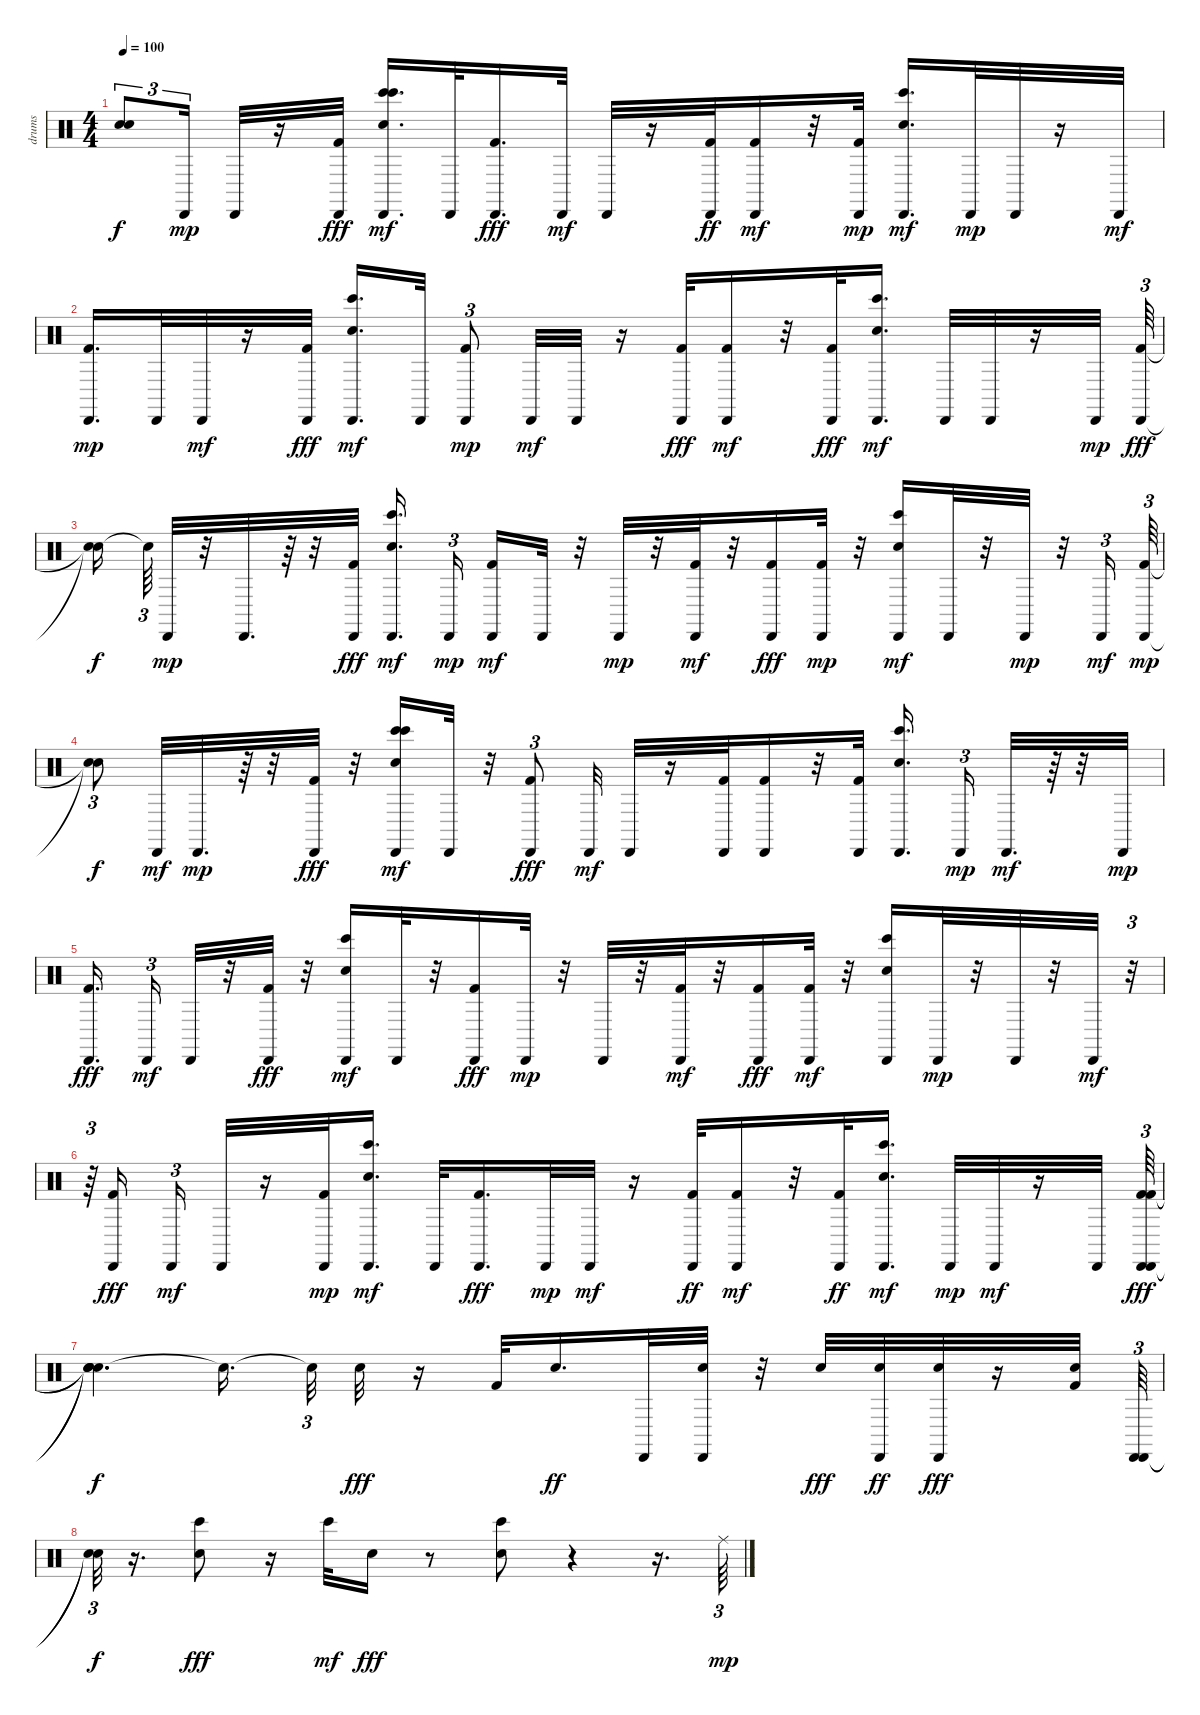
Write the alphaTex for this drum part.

\track ("drums" "drums") {instrument percussion}
\staff {score}
\articulation defaults
\ts (4 4)
\tempo 100
\clef neutral
\ks c
("Snare (hit)"{t} "Snare (hit)"{t}).8{tu (3 2) dy f} "Cabasa (hit)".16{tu (3 2) dy mp} "Cabasa (hit)".32 r.16 ("Cabasa (hit)" "Kick (hit) 2").32{dy fff} ("Electric Snare (hit)" "Cabasa (hit)" "Bongo High (hit)" "Bongo High (hit)").16{d dy mf} "Cabasa (hit)".32 ("Cabasa (hit)" "Kick (hit) 2").16{d dy fff} "Cabasa (hit)".32{dy mf} "Cabasa (hit)".32 r.16 ("Cabasa (hit)" "Kick (hit) 2").32{dy ff} ("Kick (hit) 2" "Cabasa (hit)").16{dy mf} r.32 ("Kick (hit) 2" "Cabasa (hit)").32{dy mp} ("Cabasa (hit)" "Electric Snare (hit)" "Bongo High (hit)").16{d dy mf} "Cabasa (hit)".32{dy mp} "Cabasa (hit)".32 r.16 "Cabasa (hit)".32{dy mf} |
("Kick (hit) 2" "Cabasa (hit)").16{d dy mp} "Cabasa (hit)".32 "Cabasa (hit)".32{dy mf} r.16 ("Cabasa (hit)" "Kick (hit) 2").32{dy fff} ("Electric Snare (hit)" "Cabasa (hit)" "Bongo High (hit)").16{d dy mf} "Cabasa (hit)".32 ("Kick (hit) 2" "Cabasa (hit)").8{tu (3 2) dy mp} "Cabasa (hit)".32{dy mf} "Cabasa (hit)".32 r.16 ("Cabasa (hit)" "Kick (hit) 2").32{dy fff} ("Kick (hit) 2" "Cabasa (hit)").16{dy mf} r.32 ("Cabasa (hit)" "Kick (hit) 2").32{dy fff} ("Cabasa (hit)" "Electric Snare (hit)" "Bongo High (hit)").16{d dy mf} "Cabasa (hit)".32 "Cabasa (hit)".32 r.16 "Cabasa (hit)".32{dy mp} ("Cabasa (hit)" "Kick (hit) 2").64{tu (3 2) dy fff} |
("Snare (hit)"{t} "Snare (hit)"{t}).16{dy f} "Snare (hit)"{t}.64{tu (3 2)} "Cabasa (hit)".32{dy mp} r.32 "Cabasa (hit)".32{d} r.64 r.32 ("Cabasa (hit)" "Kick (hit) 2").32{dy fff} ("Cabasa (hit)" "Electric Snare (hit)" "Bongo High (hit)").16{d dy mf} "Cabasa (hit)".16{tu (3 2) dy mp} ("Kick (hit) 2" "Cabasa (hit)").16{dy mf} "Cabasa (hit)".32 r.32 "Cabasa (hit)".32{dy mp} r.32 ("Kick (hit) 2" "Cabasa (hit)").32{dy mf} r.32 ("Cabasa (hit)" "Kick (hit) 2").16{dy fff} ("Cabasa (hit)" "Kick (hit) 2").32{dy mp} r.32 ("Electric Snare (hit)" "Cabasa (hit)" "Bongo High (hit)").16{dy mf} "Cabasa (hit)".32 r.32 "Cabasa (hit)".32{dy mp} r.32 "Cabasa (hit)".16{tu (3 2) dy mf} ("Kick (hit) 2" "Cabasa (hit)").64{tu (3 2) dy mp} |
("Snare (hit)"{t} "Snare (hit)"{t}).8{tu (3 2) dy f} "Cabasa (hit)".32{dy mf} "Cabasa (hit)".32{d dy mp} r.64 r.32 ("Cabasa (hit)" "Kick (hit) 2").32{dy fff} r.32 ("Electric Snare (hit)" "Cabasa (hit)" "Bongo High (hit)" "Bongo High (hit)").16{dy mf} "Cabasa (hit)".32 r.32 ("Cabasa (hit)" "Kick (hit) 2").8{tu (3 2) dy fff} "Cabasa (hit)".32{dy mf} "Cabasa (hit)".32 r.16 ("Kick (hit) 2" "Cabasa (hit)").32 ("Kick (hit) 2" "Cabasa (hit)").16 r.32 ("Kick (hit) 2" "Cabasa (hit)").32 ("Cabasa (hit)" "Electric Snare (hit)" "Bongo High (hit)").16{d} "Cabasa (hit)".16{tu (3 2) dy mp} "Cabasa (hit)".32{d dy mf} r.64 r.32 "Cabasa (hit)".32{dy mp} |
("Cabasa (hit)" "Kick (hit) 2").16{d dy fff} "Cabasa (hit)".16{tu (3 2) dy mf} "Cabasa (hit)".32 r.32 ("Cabasa (hit)" "Kick (hit) 2").32{dy fff} r.32 ("Electric Snare (hit)" "Cabasa (hit)" "Bongo High (hit)").16{dy mf} "Cabasa (hit)".32 r.32 ("Cabasa (hit)" "Kick (hit) 2").16{dy fff} "Cabasa (hit)".32{dy mp} r.32 "Cabasa (hit)".32 r.32 ("Kick (hit) 2" "Cabasa (hit)").32{dy mf} r.32 ("Cabasa (hit)" "Kick (hit) 2").16{dy fff} ("Kick (hit) 2" "Cabasa (hit)").32{dy mf} r.32 ("Electric Snare (hit)" "Cabasa (hit)" "Bongo High (hit)").16 "Cabasa (hit)".32{dy mp} r.32 "Cabasa (hit)".32 r.32 "Cabasa (hit)".32{dy mf} r.32{tu (3 2)} |
r.64{tu (3 2)} ("Cabasa (hit)" "Kick (hit) 2").16{dy fff} "Cabasa (hit)".16{tu (3 2) dy mf} "Cabasa (hit)".32 r.16 ("Kick (hit) 2" "Cabasa (hit)").32{dy mp} ("Cabasa (hit)" "Electric Snare (hit)" "Bongo High (hit)").16{d dy mf} "Cabasa (hit)".32 ("Cabasa (hit)" "Kick (hit) 2").16{d dy fff} "Cabasa (hit)".32{dy mp} "Cabasa (hit)".32{dy mf} r.16 ("Cabasa (hit)" "Kick (hit) 2").32{dy ff} ("Kick (hit) 2" "Cabasa (hit)").16{dy mf} r.32 ("Cabasa (hit)" "Kick (hit) 2").32{dy ff} ("Electric Snare (hit)" "Cabasa (hit)" "Bongo High (hit)").16{d dy mf} "Cabasa (hit)".32{dy mp} "Cabasa (hit)".32{dy mf} r.16 "Cabasa (hit)".32 ("Cabasa (hit)" "Kick (hit) 2" "Cabasa (hit)" "Kick (hit) 2").64{tu (3 2) dy fff} |
("Snare (hit)"{t} "Snare (hit)"{t} "Snare (hit)"{t} "Snare (hit)"{t}).4{d dy f} "Snare (hit)"{t}.16{d} "Snare (hit)"{t}.32{tu (3 2)} "Electric Snare (hit)".32{dy fff} r.16 "Kick (hit) 2".32 "Electric Snare (hit)".16{d dy ff} "Cabasa (hit)".32 ("Electric Snare (hit)" "Cabasa (hit)").32 r.32 "Electric Snare (hit)".32{dy fff} ("Electric Snare (hit)" "Cabasa (hit)").32{dy ff} ("Cabasa (hit)" "Electric Snare (hit)").32{dy fff} r.16 ("Electric Snare (hit)" "Kick (hit) 2").32 ("Cabasa (hit)" "Cabasa (hit)").64{tu (3 2)} |
("Snare (hit)"{t} "Snare (hit)"{t}).32{tu (3 2) dy f} r.16{d} ("Bongo High (hit)" "Electric Snare (hit)").8{dy fff} r.16 "Bongo High (hit)".32{dy mf} "Electric Snare (hit)".16{dy fff} r.8 ("Bongo High (hit)" "Electric Snare (hit)").8 r.4 r.16{d} "Ride (middle)".64{tu (3 2) dy mp}
